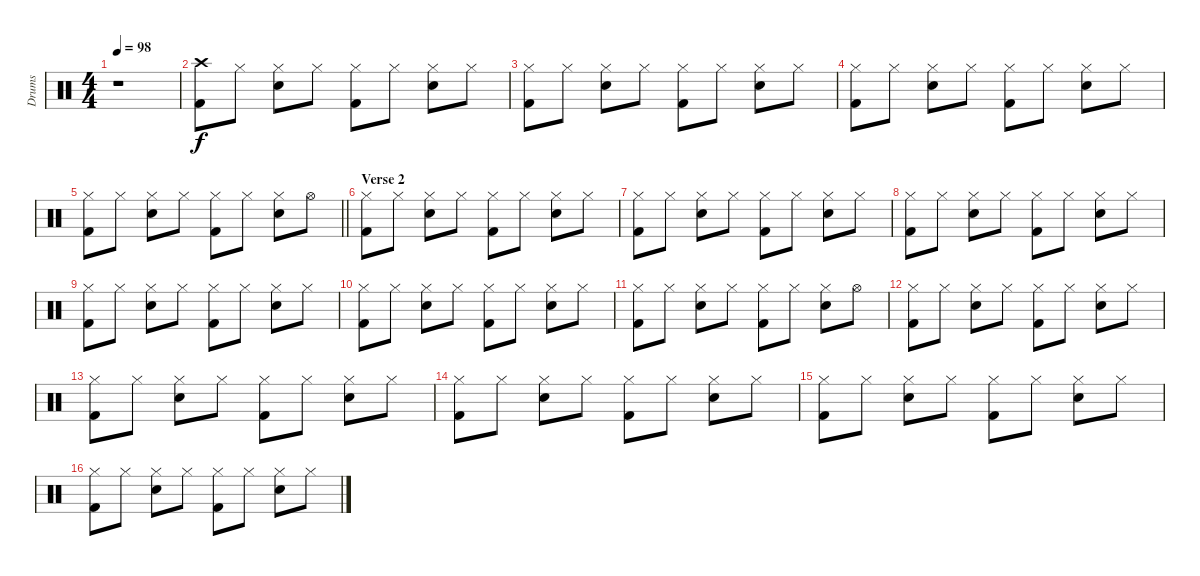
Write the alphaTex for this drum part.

\track ("Drums" "Drums") {instrument percussion}
\staff {score}
\articulation defaults
\ts (4 4)
\tempo 98
\clef neutral
\ks c
r.1{dy f} |
("Crash high (hit)" "Kick (hit) 2").8 "Hi-Hat (closed)".8 ("Hi-Hat (closed)" "Snare (hit) 2").8 "Hi-Hat (closed)".8 ("Hi-Hat (closed)" "Kick (hit) 2").8 "Hi-Hat (closed)".8 ("Hi-Hat (closed)" "Snare (hit) 2").8 "Hi-Hat (closed)".8 |
("Hi-Hat (closed)" "Kick (hit) 2").8 "Hi-Hat (closed)".8 ("Hi-Hat (closed)" "Snare (hit) 2").8 "Hi-Hat (closed)".8 ("Hi-Hat (closed)" "Kick (hit) 2").8 "Hi-Hat (closed)".8 ("Hi-Hat (closed)" "Snare (hit) 2").8 "Hi-Hat (closed)".8 |
("Hi-Hat (closed)" "Kick (hit) 2").8 "Hi-Hat (closed)".8 ("Hi-Hat (closed)" "Snare (hit) 2").8 "Hi-Hat (closed)".8 ("Hi-Hat (closed)" "Kick (hit) 2").8 "Hi-Hat (closed)".8 ("Hi-Hat (closed)" "Snare (hit) 2").8 "Hi-Hat (closed)".8 |
\barLineRight lightlight
("Hi-Hat (closed)" "Kick (hit) 2").8 "Hi-Hat (closed)".8 ("Hi-Hat (closed)" "Snare (hit) 2").8 "Hi-Hat (closed)".8 ("Hi-Hat (closed)" "Kick (hit) 2").8 "Hi-Hat (closed)".8 ("Hi-Hat (closed)" "Snare (hit) 2").8 "Hi-Hat (open)".8 |
\section ("" "Verse 2")
("Hi-Hat (closed)" "Kick (hit) 2").8 "Hi-Hat (closed)".8 ("Hi-Hat (closed)" "Snare (hit) 2").8 "Hi-Hat (closed)".8 ("Hi-Hat (closed)" "Kick (hit) 2").8 "Hi-Hat (closed)".8 ("Hi-Hat (closed)" "Snare (hit) 2").8 "Hi-Hat (closed)".8 |
("Hi-Hat (closed)" "Kick (hit) 2").8 "Hi-Hat (closed)".8 ("Hi-Hat (closed)" "Snare (hit) 2").8 "Hi-Hat (closed)".8 ("Hi-Hat (closed)" "Kick (hit) 2").8 "Hi-Hat (closed)".8 ("Hi-Hat (closed)" "Snare (hit) 2").8 "Hi-Hat (closed)".8 |
("Hi-Hat (closed)" "Kick (hit) 2").8 "Hi-Hat (closed)".8 ("Hi-Hat (closed)" "Snare (hit) 2").8 "Hi-Hat (closed)".8 ("Hi-Hat (closed)" "Kick (hit) 2").8 "Hi-Hat (closed)".8 ("Hi-Hat (closed)" "Snare (hit) 2").8 "Hi-Hat (closed)".8 |
("Hi-Hat (closed)" "Kick (hit) 2").8 "Hi-Hat (closed)".8 ("Hi-Hat (closed)" "Snare (hit) 2").8 "Hi-Hat (closed)".8 ("Hi-Hat (closed)" "Kick (hit) 2").8 "Hi-Hat (closed)".8 ("Hi-Hat (closed)" "Snare (hit) 2").8 "Hi-Hat (closed)".8 |
("Hi-Hat (closed)" "Kick (hit) 2").8 "Hi-Hat (closed)".8 ("Hi-Hat (closed)" "Snare (hit) 2").8 "Hi-Hat (closed)".8 ("Hi-Hat (closed)" "Kick (hit) 2").8 "Hi-Hat (closed)".8 ("Hi-Hat (closed)" "Snare (hit) 2").8 "Hi-Hat (closed)".8 |
("Hi-Hat (closed)" "Kick (hit) 2").8 "Hi-Hat (closed)".8 ("Hi-Hat (closed)" "Snare (hit) 2").8 "Hi-Hat (closed)".8 ("Hi-Hat (closed)" "Kick (hit) 2").8 "Hi-Hat (closed)".8 ("Hi-Hat (closed)" "Snare (hit) 2").8 "Hi-Hat (open)".8 |
("Hi-Hat (closed)" "Kick (hit) 2").8 "Hi-Hat (closed)".8 ("Hi-Hat (closed)" "Snare (hit) 2").8 "Hi-Hat (closed)".8 ("Hi-Hat (closed)" "Kick (hit) 2").8 "Hi-Hat (closed)".8 ("Hi-Hat (closed)" "Snare (hit) 2").8 "Hi-Hat (closed)".8 |
("Hi-Hat (closed)" "Kick (hit) 2").8 "Hi-Hat (closed)".8 ("Hi-Hat (closed)" "Snare (hit) 2").8 "Hi-Hat (closed)".8 ("Hi-Hat (closed)" "Kick (hit) 2").8 "Hi-Hat (closed)".8 ("Hi-Hat (closed)" "Snare (hit) 2").8 "Hi-Hat (closed)".8 |
("Hi-Hat (closed)" "Kick (hit) 2").8 "Hi-Hat (closed)".8 ("Hi-Hat (closed)" "Snare (hit) 2").8 "Hi-Hat (closed)".8 ("Hi-Hat (closed)" "Kick (hit) 2").8 "Hi-Hat (closed)".8 ("Hi-Hat (closed)" "Snare (hit) 2").8 "Hi-Hat (closed)".8 |
("Hi-Hat (closed)" "Kick (hit) 2").8 "Hi-Hat (closed)".8 ("Hi-Hat (closed)" "Snare (hit) 2").8 "Hi-Hat (closed)".8 ("Hi-Hat (closed)" "Kick (hit) 2").8 "Hi-Hat (closed)".8 ("Hi-Hat (closed)" "Snare (hit) 2").8 "Hi-Hat (closed)".8 |
("Hi-Hat (closed)" "Kick (hit) 2").8 "Hi-Hat (closed)".8 ("Hi-Hat (closed)" "Snare (hit) 2").8 "Hi-Hat (closed)".8 ("Hi-Hat (closed)" "Kick (hit) 2").8 "Hi-Hat (closed)".8 ("Hi-Hat (closed)" "Snare (hit) 2").8 "Hi-Hat (closed)".8
